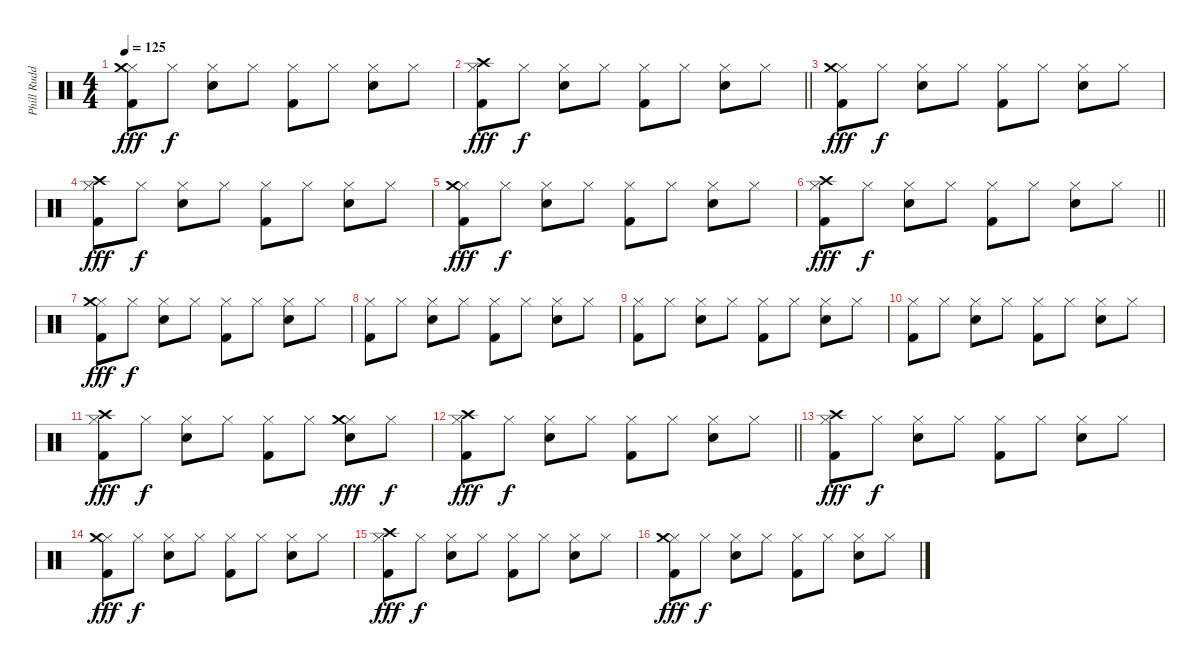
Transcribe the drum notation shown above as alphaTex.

\track ("Phill Rudd" "Phill Rudd") {instrument percussion}
\staff {score}
\articulation defaults
\ts (4 4)
\tempo 125
\clef neutral
\ks c
("Hi-Hat (closed)" "Kick (hit) 2" "Crash medium (hit)").8{dy fff} "Hi-Hat (closed)".8{dy f} ("Hi-Hat (closed)" "Electric Snare (hit)").8 "Hi-Hat (closed)".8 ("Hi-Hat (closed)" "Kick (hit) 2").8 "Hi-Hat (closed)".8 ("Hi-Hat (closed)" "Electric Snare (hit)").8 "Hi-Hat (closed)".8 |
\barLineRight lightlight
("Hi-Hat (closed)" "Kick (hit) 2" "Crash high (hit)").8{dy fff} "Hi-Hat (closed)".8{dy f} ("Hi-Hat (closed)" "Electric Snare (hit)").8 "Hi-Hat (closed)".8 ("Hi-Hat (closed)" "Kick (hit) 2").8 "Hi-Hat (closed)".8 ("Hi-Hat (closed)" "Electric Snare (hit)").8 "Hi-Hat (closed)".8 |
("Hi-Hat (closed)" "Kick (hit) 2" "Crash medium (hit)").8{dy fff} "Hi-Hat (closed)".8{dy f} ("Hi-Hat (closed)" "Electric Snare (hit)").8 "Hi-Hat (closed)".8 ("Hi-Hat (closed)" "Kick (hit) 2").8 "Hi-Hat (closed)".8 ("Hi-Hat (closed)" "Electric Snare (hit)").8 "Hi-Hat (closed)".8 |
("Hi-Hat (closed)" "Kick (hit) 2" "Crash high (hit)").8{dy fff} "Hi-Hat (closed)".8{dy f} ("Hi-Hat (closed)" "Electric Snare (hit)").8 "Hi-Hat (closed)".8 ("Hi-Hat (closed)" "Kick (hit) 2").8 "Hi-Hat (closed)".8 ("Hi-Hat (closed)" "Electric Snare (hit)").8 "Hi-Hat (closed)".8 |
("Hi-Hat (closed)" "Kick (hit) 2" "Crash medium (hit)").8{dy fff} "Hi-Hat (closed)".8{dy f} ("Hi-Hat (closed)" "Electric Snare (hit)").8 "Hi-Hat (closed)".8 ("Hi-Hat (closed)" "Kick (hit) 2").8 "Hi-Hat (closed)".8 ("Hi-Hat (closed)" "Electric Snare (hit)").8 "Hi-Hat (closed)".8 |
\barLineRight lightlight
("Hi-Hat (closed)" "Kick (hit) 2" "Crash high (hit)").8{dy fff} "Hi-Hat (closed)".8{dy f} ("Hi-Hat (closed)" "Electric Snare (hit)").8 "Hi-Hat (closed)".8 ("Hi-Hat (closed)" "Kick (hit) 2").8 "Hi-Hat (closed)".8 ("Hi-Hat (closed)" "Electric Snare (hit)").8 "Hi-Hat (closed)".8 |
("Hi-Hat (closed)" "Kick (hit) 2" "Crash medium (hit)").8{dy fff} "Hi-Hat (closed)".8{dy f} ("Hi-Hat (closed)" "Electric Snare (hit)").8 "Hi-Hat (closed)".8 ("Hi-Hat (closed)" "Kick (hit) 2").8 "Hi-Hat (closed)".8 ("Hi-Hat (closed)" "Electric Snare (hit)").8 "Hi-Hat (closed)".8 |
("Hi-Hat (closed)" "Kick (hit) 2").8 "Hi-Hat (closed)".8 ("Hi-Hat (closed)" "Electric Snare (hit)").8 "Hi-Hat (closed)".8 ("Hi-Hat (closed)" "Kick (hit) 2").8 "Hi-Hat (closed)".8 ("Hi-Hat (closed)" "Electric Snare (hit)").8 "Hi-Hat (closed)".8 |
("Hi-Hat (closed)" "Kick (hit) 2").8 "Hi-Hat (closed)".8 ("Hi-Hat (closed)" "Electric Snare (hit)").8 "Hi-Hat (closed)".8 ("Hi-Hat (closed)" "Kick (hit) 2").8 "Hi-Hat (closed)".8 ("Hi-Hat (closed)" "Electric Snare (hit)").8 "Hi-Hat (closed)".8 |
("Hi-Hat (closed)" "Kick (hit) 2").8 "Hi-Hat (closed)".8 ("Hi-Hat (closed)" "Electric Snare (hit)").8 "Hi-Hat (closed)".8 ("Hi-Hat (closed)" "Kick (hit) 2").8 "Hi-Hat (closed)".8 ("Hi-Hat (closed)" "Electric Snare (hit)").8 "Hi-Hat (closed)".8 |
("Hi-Hat (closed)" "Kick (hit) 2" "Crash high (hit)").8{dy fff} "Hi-Hat (closed)".8{dy f} ("Hi-Hat (closed)" "Electric Snare (hit)").8 "Hi-Hat (closed)".8 ("Hi-Hat (closed)" "Kick (hit) 2").8 "Hi-Hat (closed)".8 ("Hi-Hat (closed)" "Electric Snare (hit)" "Crash medium (hit)").8{dy fff} "Hi-Hat (closed)".8{dy f} |
\barLineRight lightlight
("Hi-Hat (closed)" "Kick (hit) 2" "Crash high (hit)").8{dy fff} "Hi-Hat (closed)".8{dy f} ("Hi-Hat (closed)" "Electric Snare (hit)").8 "Hi-Hat (closed)".8 ("Hi-Hat (closed)" "Kick (hit) 2").8 "Hi-Hat (closed)".8 ("Hi-Hat (closed)" "Electric Snare (hit)").8 "Hi-Hat (closed)".8 |
("Hi-Hat (closed)" "Kick (hit) 2" "Crash high (hit)").8{dy fff} "Hi-Hat (closed)".8{dy f} ("Hi-Hat (closed)" "Electric Snare (hit)").8 "Hi-Hat (closed)".8 ("Hi-Hat (closed)" "Kick (hit) 2").8 "Hi-Hat (closed)".8 ("Hi-Hat (closed)" "Electric Snare (hit)").8 "Hi-Hat (closed)".8 |
("Hi-Hat (closed)" "Kick (hit) 2" "Crash medium (hit)").8{dy fff} "Hi-Hat (closed)".8{dy f} ("Hi-Hat (closed)" "Electric Snare (hit)").8 "Hi-Hat (closed)".8 ("Hi-Hat (closed)" "Kick (hit) 2").8 "Hi-Hat (closed)".8 ("Hi-Hat (closed)" "Electric Snare (hit)").8 "Hi-Hat (closed)".8 |
("Hi-Hat (closed)" "Kick (hit) 2" "Crash high (hit)").8{dy fff} "Hi-Hat (closed)".8{dy f} ("Hi-Hat (closed)" "Electric Snare (hit)").8 "Hi-Hat (closed)".8 ("Hi-Hat (closed)" "Kick (hit) 2").8 "Hi-Hat (closed)".8 ("Hi-Hat (closed)" "Electric Snare (hit)").8 "Hi-Hat (closed)".8 |
("Hi-Hat (closed)" "Kick (hit) 2" "Crash medium (hit)").8{dy fff} "Hi-Hat (closed)".8{dy f} ("Hi-Hat (closed)" "Electric Snare (hit)").8 "Hi-Hat (closed)".8 ("Hi-Hat (closed)" "Kick (hit) 2").8 "Hi-Hat (closed)".8 ("Hi-Hat (closed)" "Electric Snare (hit)").8 "Hi-Hat (closed)".8
